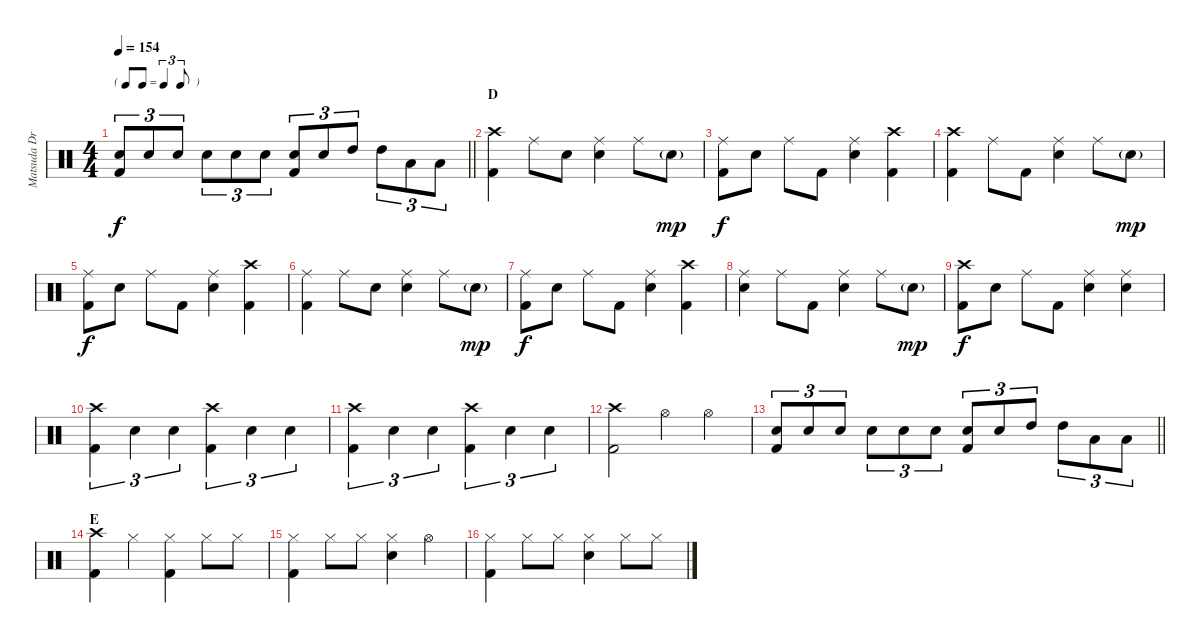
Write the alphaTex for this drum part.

\track ("Matsuda Drums" "Matsuda Dr") {instrument percussion}
\staff {score}
\articulation defaults
\ts (4 4)
\tf triplet8th
\tempo 154
\clef neutral
\barLineRight lightlight
\ks c
("Snare (hit) 2" "Kick (hit) 2").8{tu (3 2) dy f} "Snare (hit) 2".8{tu (3 2)} "Snare (hit) 2".8{tu (3 2)} "Snare (hit) 2".8{tu (3 2)} "Snare (hit) 2".8{tu (3 2)} "Snare (hit) 2".8{tu (3 2)} ("Snare (hit) 2" "Kick (hit) 2").8{tu (3 2)} "Snare (hit) 2".8{tu (3 2)} "High Tom (hit)".8{tu (3 2)} "High Tom (hit)".8{tu (3 2)} "Low Floor Tom (hit)".8{tu (3 2)} "Low Floor Tom (hit)".8{tu (3 2)} |
\section ("" "D")
("Crash high (hit)" "Kick (hit) 2").4 "Ride (middle)".8 "Snare (hit) 2".8 ("Ride (middle)" "Snare (hit) 2").4 "Ride (middle)".8 "Snare (hit) 2"{g}.8{dy mp} |
("Ride (middle)" "Kick (hit) 2").8{dy f} "Snare (hit) 2".8 "Ride (middle)".8 "Kick (hit) 2".8 ("Ride (middle)" "Snare (hit) 2").4 ("Crash high (hit)" "Kick (hit) 2").4 |
("Crash high (hit)" "Kick (hit) 2").4 "Ride (middle)".8 "Kick (hit) 2".8 ("Ride (middle)" "Snare (hit) 2").4 "Ride (middle)".8 "Snare (hit) 2"{g}.8{dy mp} |
("Ride (middle)" "Kick (hit) 2").8{dy f} "Snare (hit) 2".8 "Ride (middle)".8 "Kick (hit) 2".8 ("Ride (middle)" "Snare (hit) 2").4 ("Crash high (hit)" "Kick (hit) 2").4 |
("Ride (middle)" "Kick (hit) 2").4 "Ride (middle)".8 "Snare (hit) 2".8 ("Ride (middle)" "Snare (hit) 2").4 "Ride (middle)".8 "Snare (hit) 2"{g}.8{dy mp} |
("Ride (middle)" "Kick (hit) 2").8{dy f} "Snare (hit) 2".8 "Ride (middle)".8 "Kick (hit) 2".8 ("Ride (middle)" "Snare (hit) 2").4 ("Crash high (hit)" "Kick (hit) 2").4 |
("Ride (middle)" "Snare (hit) 2").4 "Ride (middle)".8 "Kick (hit) 2".8 ("Ride (middle)" "Snare (hit) 2").4 "Ride (middle)".8 "Snare (hit) 2"{g}.8{dy mp} |
("Crash high (hit)" "Kick (hit) 2").8{dy f} "Snare (hit) 2".8 "Ride (middle)".8 "Kick (hit) 2".8 ("Ride (middle)" "Snare (hit) 2").4 ("Ride (middle)" "Snare (hit) 2").4 |
("Crash high (hit)" "Kick (hit) 2").4{tu (3 2)} "Snare (hit) 2".4{tu (3 2)} "Snare (hit) 2".4{tu (3 2)} ("Crash high (hit)" "Kick (hit) 2").4{tu (3 2)} "Snare (hit) 2".4{tu (3 2)} "Snare (hit) 2".4{tu (3 2)} |
("Crash high (hit)" "Kick (hit) 2").4{tu (3 2)} "Snare (hit) 2".4{tu (3 2)} "Snare (hit) 2".4{tu (3 2)} ("Crash high (hit)" "Kick (hit) 2").4{tu (3 2)} "Snare (hit) 2".4{tu (3 2)} "Snare (hit) 2".4{tu (3 2)} |
("Crash high (hit)" "Kick (hit) 2").2 "Hi-Hat (open)".4 "Hi-Hat (open)".4 |
\barLineRight lightlight
("Snare (hit) 2" "Kick (hit) 2").8{tu (3 2)} "Snare (hit) 2".8{tu (3 2)} "Snare (hit) 2".8{tu (3 2)} "Snare (hit) 2".8{tu (3 2)} "Snare (hit) 2".8{tu (3 2)} "Snare (hit) 2".8{tu (3 2)} ("Snare (hit) 2" "Kick (hit) 2").8{tu (3 2)} "Snare (hit) 2".8{tu (3 2)} "High Tom (hit)".8{tu (3 2)} "High Tom (hit)".8{tu (3 2)} "Low Floor Tom (hit)".8{tu (3 2)} "Low Floor Tom (hit)".8{tu (3 2)} |
\section ("" "E")
("Crash high (hit)" "Kick (hit) 2").4 "Hi-Hat (closed)".4 ("Hi-Hat (closed)" "Kick (hit) 2").4 "Hi-Hat (closed)".8 "Hi-Hat (closed)".8 |
("Hi-Hat (closed)" "Kick (hit) 2").4 "Hi-Hat (closed)".8 "Hi-Hat (closed)".8 ("Hi-Hat (closed)" "Snare (hit) 2").4 "Hi-Hat (open)".4 |
("Hi-Hat (closed)" "Kick (hit) 2").4 "Hi-Hat (closed)".8 "Hi-Hat (closed)".8 ("Hi-Hat (closed)" "Snare (hit) 2").4 "Hi-Hat (closed)".8 "Hi-Hat (closed)".8
